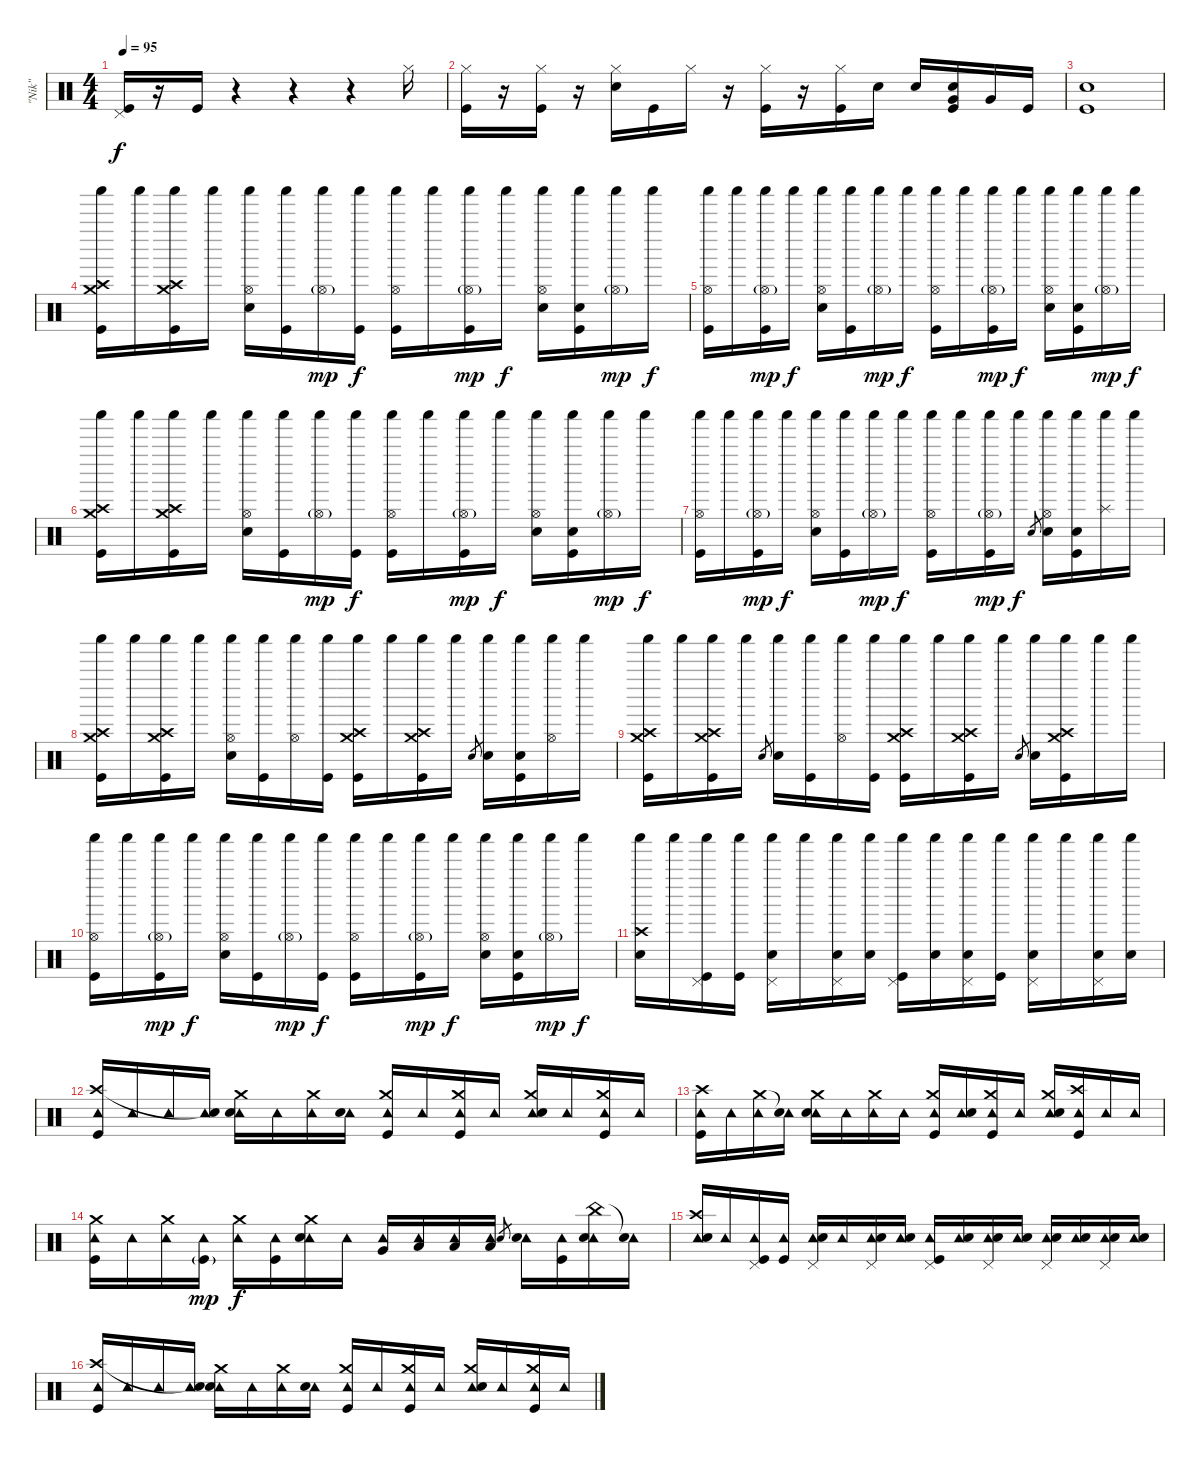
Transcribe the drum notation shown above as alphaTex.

\track ("\"Nik\"" "\"Nik\"") {instrument percussion}
\staff {score}
\articulation defaults
\ts (4 4)
\tempo 95
\clef neutral
\ks c
("Pedal Hi-Hat (hit)" "Kick (hit)").16{dy f} r.16 "Kick (hit)".16 r.4 r.4 r.4 "Hi-Hat (closed)".16 |
("Hi-Hat (closed)" "Kick (hit)").16 r.16 ("Hi-Hat (closed)" "Kick (hit)").16 r.16 ("Hi-Hat (closed)" "Snare (hit) 2").16 "Kick (hit)".16 "Hi-Hat (closed)".16 r.16 ("Hi-Hat (closed)" "Kick (hit)").16 r.16 ("Hi-Hat (closed)" "Kick (hit)").16 "Snare (hit) 2".16 "Snare (hit) 2".16 ("Snare (hit)"{x} "Very Low Tom (hit)" "Kick (hit)").16 "Very Low Tom (hit)".16 "Kick (hit)".16 |
("Snare (hit) 2" "Kick (hit)").1 |
("Shaker (hit)" "Crash medium (hit)" "Crash high (hit)" "Kick (hit)").16 "Shaker (hit)".16 ("Shaker (hit)" "Crash medium (hit)" "Crash high (hit)" "Kick (hit)").16 "Shaker (hit)".16 ("Shaker (hit)" "Hi-Hat (open)" "Snare (hit) 2").16 ("Shaker (hit)" "Kick (hit)").16 ("Shaker (hit)" "Hi-Hat (open)"{g}).16{dy mp} ("Shaker (hit)" "Kick (hit)").16{dy f} ("Shaker (hit)" "Hi-Hat (open)" "Kick (hit)").16 "Shaker (hit)".16 ("Shaker (hit)" "Hi-Hat (open)"{g} "Kick (hit)").16{dy mp} "Shaker (hit)".16{dy f} ("Shaker (hit)" "Hi-Hat (open)" "Snare (hit) 2").16 ("Shaker (hit)" "Snare (hit)"{x} "Kick (hit)").16 ("Shaker (hit)" "Hi-Hat (open)"{g}).16{dy mp} "Shaker (hit)".16{dy f} |
("Shaker (hit)" "Hi-Hat (open)" "Kick (hit)").16 "Shaker (hit)".16 ("Shaker (hit)" "Hi-Hat (open)"{g} "Kick (hit)").16{dy mp} "Shaker (hit)".16{dy f} ("Shaker (hit)" "Hi-Hat (open)" "Snare (hit) 2").16 ("Shaker (hit)" "Kick (hit)").16 ("Shaker (hit)" "Hi-Hat (open)"{g}).16{dy mp} "Shaker (hit)".16{dy f} ("Shaker (hit)" "Hi-Hat (open)" "Kick (hit)").16 "Shaker (hit)".16 ("Shaker (hit)" "Hi-Hat (open)"{g} "Kick (hit)").16{dy mp} "Shaker (hit)".16{dy f} ("Shaker (hit)" "Hi-Hat (open)" "Snare (hit) 2").16 ("Shaker (hit)" "Snare (hit)"{x} "Kick (hit)").16 ("Shaker (hit)" "Hi-Hat (open)"{g}).16{dy mp} "Shaker (hit)".16{dy f} |
("Shaker (hit)" "Crash medium (hit)" "Crash high (hit)" "Kick (hit)").16 "Shaker (hit)".16 ("Shaker (hit)" "Crash medium (hit)" "Crash high (hit)" "Kick (hit)").16 "Shaker (hit)".16 ("Shaker (hit)" "Hi-Hat (open)" "Snare (hit) 2").16 ("Shaker (hit)" "Kick (hit)").16 ("Shaker (hit)" "Hi-Hat (open)"{g}).16{dy mp} ("Shaker (hit)" "Kick (hit)").16{dy f} ("Shaker (hit)" "Hi-Hat (open)" "Kick (hit)").16 "Shaker (hit)".16 ("Shaker (hit)" "Hi-Hat (open)"{g} "Kick (hit)").16{dy mp} "Shaker (hit)".16{dy f} ("Shaker (hit)" "Hi-Hat (open)" "Snare (hit) 2").16 ("Shaker (hit)" "Snare (hit)"{x} "Kick (hit)").16 ("Shaker (hit)" "Hi-Hat (open)"{g}).16{dy mp} "Shaker (hit)".16{dy f} |
("Shaker (hit)" "Hi-Hat (open)" "Kick (hit)").16 "Shaker (hit)".16 ("Shaker (hit)" "Hi-Hat (open)"{g} "Kick (hit)").16{dy mp} "Shaker (hit)".16{dy f} ("Shaker (hit)" "Hi-Hat (open)" "Snare (hit) 2").16 ("Shaker (hit)" "Kick (hit)").16 ("Shaker (hit)" "Hi-Hat (open)"{g}).16{dy mp} "Shaker (hit)".16{dy f} ("Shaker (hit)" "Hi-Hat (open)" "Kick (hit)").16 "Shaker (hit)".16 ("Shaker (hit)" "Hi-Hat (open)"{g} "Kick (hit)").16{dy mp} "Shaker (hit)".16{dy f} "Snare (hit) 2".8{gr} ("Shaker (hit)" "Hi-Hat (open)" "Snare (hit) 2").16 ("Shaker (hit)" "Snare (hit)"{x} "Kick (hit)").16 ("Shaker (hit)" "Splash (hit)").16 "Shaker (hit)".16 |
("Shaker (hit)" "Crash medium (hit)" "Crash high (hit)" "Kick (hit)").16 "Shaker (hit)".16 ("Shaker (hit)" "Crash medium (hit)" "Crash high (hit)" "Kick (hit)").16 "Shaker (hit)".16 ("Shaker (hit)" "Hi-Hat (open)" "Snare (hit) 2").16 ("Shaker (hit)" "Kick (hit)").16 ("Shaker (hit)" "Hi-Hat (open)").16 ("Shaker (hit)" "Kick (hit)").16 ("Shaker (hit)" "Crash medium (hit)" "Crash high (hit)" "Kick (hit)").16 "Shaker (hit)".16 ("Shaker (hit)" "Crash medium (hit)" "Crash high (hit)" "Kick (hit)").16 "Shaker (hit)".16 "Snare (hit) 2".8{gr} ("Shaker (hit)" "Snare (hit) 2").16 ("Shaker (hit)" "Snare (hit)"{x} "Kick (hit)").16 ("Shaker (hit)" "Hi-Hat (open)").16 "Shaker (hit)".16 |
("Shaker (hit)" "Crash medium (hit)" "Crash high (hit)" "Kick (hit)").16 "Shaker (hit)".16 ("Shaker (hit)" "Crash medium (hit)" "Crash high (hit)" "Kick (hit)").16 "Shaker (hit)".16 "Snare (hit) 2".8{gr} ("Shaker (hit)" "Snare (hit) 2").16 ("Shaker (hit)" "Kick (hit)").16 ("Shaker (hit)" "Hi-Hat (open)").16 ("Shaker (hit)" "Kick (hit)").16 ("Shaker (hit)" "Crash medium (hit)" "Crash high (hit)" "Kick (hit)").16 "Shaker (hit)".16 ("Shaker (hit)" "Crash medium (hit)" "Crash high (hit)" "Kick (hit)").16 "Shaker (hit)".16 "Snare (hit) 2".8{gr} ("Shaker (hit)" "Snare (hit) 2").16 ("Shaker (hit)" "Crash medium (hit)" "Crash high (hit)" "Kick (hit)").16 "Shaker (hit)".16 "Shaker (hit)".16 |
("Shaker (hit)" "Hi-Hat (open)" "Kick (hit)").16 "Shaker (hit)".16 ("Shaker (hit)" "Hi-Hat (open)"{g} "Kick (hit)").16{dy mp} "Shaker (hit)".16{dy f} ("Shaker (hit)" "Hi-Hat (open)" "Snare (hit) 2").16 ("Shaker (hit)" "Kick (hit)").16 ("Shaker (hit)" "Hi-Hat (open)"{g}).16{dy mp} ("Shaker (hit)" "Kick (hit)").16{dy f} ("Shaker (hit)" "Hi-Hat (open)" "Kick (hit)").16 "Shaker (hit)".16 ("Shaker (hit)" "Hi-Hat (open)"{g} "Kick (hit)").16{dy mp} "Shaker (hit)".16{dy f} ("Shaker (hit)" "Hi-Hat (open)" "Snare (hit) 2").16 ("Shaker (hit)" "Snare (hit)"{x} "Kick (hit)").16 ("Shaker (hit)" "Hi-Hat (open)"{g}).16{dy mp} "Shaker (hit)".16{dy f} |
("Shaker (hit)" "Crash high (hit)" "Snare (hit) 2").16 "Shaker (hit)".16 ("Shaker (hit)" "Pedal Hi-Hat (hit)" "Kick (hit)").16 ("Shaker (hit)" "Kick (hit)").16 ("Shaker (hit)" "Pedal Hi-Hat (hit)" "Snare (hit) 2").16 "Shaker (hit)".16 ("Shaker (hit)" "Pedal Hi-Hat (hit)" "Snare (hit) 2").16 ("Shaker (hit)" "Snare (hit) 2").16 ("Shaker (hit)" "Pedal Hi-Hat (hit)" "Kick (hit)").16 ("Shaker (hit)" "Snare (hit) 2").16 ("Shaker (hit)" "Pedal Hi-Hat (hit)" "Snare (hit) 2").16 ("Shaker (hit)" "Kick (hit)").16 ("Shaker (hit)" "Pedal Hi-Hat (hit)" "Snare (hit) 2").16 "Shaker (hit)".16 ("Shaker (hit)" "Pedal Hi-Hat (hit)" "Snare (hit) 2").16 ("Shaker (hit)" "Snare (hit) 2").16 |
("Tambourine (hit)" "Crash high (hit)" "Kick (hit)").16 "Tambourine (hit)".16 "Tambourine (hit)".16 ("Tambourine (hit)" "Snare (hit)"{t}).16 ("Tambourine (hit)" "Crash medium (hit)" "Snare (hit) 2").16 "Tambourine (hit)".16 ("Tambourine (hit)" "Crash medium (hit)").16 ("Tambourine (hit)" "Snare (hit) 2").16 ("Tambourine (hit)" "Crash medium (hit)" "Kick (hit)").16 "Tambourine (hit)".16 ("Tambourine (hit)" "Crash medium (hit)" "Kick (hit)").16 "Tambourine (hit)".16 ("Tambourine (hit)" "Crash medium (hit)" "Snare (hit) 2").16 "Tambourine (hit)".16 ("Tambourine (hit)" "Crash medium (hit)" "Kick (hit)").16 "Tambourine (hit)".16 |
("Tambourine (hit)" "Crash high (hit)" "Kick (hit)").16 "Tambourine (hit)".16 ("Tambourine (hit)" "Crash medium (hit)").16 ("Tambourine (hit)" "Snare (hit)"{t}).16 ("Tambourine (hit)" "Crash medium (hit)" "Snare (hit) 2").16 "Tambourine (hit)".16 ("Tambourine (hit)" "Crash medium (hit)").16 "Tambourine (hit)".16 ("Tambourine (hit)" "Crash medium (hit)" "Kick (hit)").16 ("Tambourine (hit)" "Snare (hit) 2").16 ("Tambourine (hit)" "Crash medium (hit)" "Kick (hit)").16 "Tambourine (hit)".16 ("Tambourine (hit)" "Crash medium (hit)" "Snare (hit) 2").16 ("Tambourine (hit)" "Crash high (hit)" "Kick (hit)").16 "Tambourine (hit)".16 "Tambourine (hit)".16 |
("Tambourine (hit)" "Crash medium (hit)" "Kick (hit)").16 "Tambourine (hit)".16 ("Tambourine (hit)" "Crash medium (hit)").16 ("Tambourine (hit)" "Kick (hit)"{g}).16{dy mp} ("Tambourine (hit)" "Crash medium (hit)").16{dy f} ("Tambourine (hit)" "Kick (hit)").16 ("Tambourine (hit)" "Crash medium (hit)" "Snare (hit) 2").16 "Tambourine (hit)".16 ("Tambourine (hit)" "Very Low Tom (hit)").16 ("Tambourine (hit)" "Low Tom (hit)").16 ("Tambourine (hit)" "Low Tom (hit)").16 ("Tambourine (hit)" "Low Floor Tom (hit)").16 "Snare (hit) 2".8{gr} ("Tambourine (hit)" "Snare (hit) 2").16 ("Tambourine (hit)" "Kick (hit)").16 ("Tambourine (hit)" "China (hit)" "Snare (hit) 2").16 ("Tambourine (hit)" "Snare (hit)"{t}).16 |
("Tambourine (hit)" "Crash high (hit)" "Snare (hit) 2").16 "Tambourine (hit)".16 ("Tambourine (hit)" "Pedal Hi-Hat (hit)" "Kick (hit)").16 ("Tambourine (hit)" "Kick (hit)").16 ("Tambourine (hit)" "Pedal Hi-Hat (hit)" "Snare (hit) 2").16 "Tambourine (hit)".16 ("Tambourine (hit)" "Pedal Hi-Hat (hit)" "Snare (hit) 2").16 ("Tambourine (hit)" "Snare (hit) 2").16 ("Tambourine (hit)" "Pedal Hi-Hat (hit)" "Kick (hit)").16 ("Tambourine (hit)" "Snare (hit) 2").16 ("Tambourine (hit)" "Pedal Hi-Hat (hit)" "Snare (hit) 2").16 ("Tambourine (hit)" "Snare (hit) 2").16 ("Tambourine (hit)" "Pedal Hi-Hat (hit)" "Snare (hit) 2").16 ("Tambourine (hit)" "Snare (hit) 2").16 ("Tambourine (hit)" "Pedal Hi-Hat (hit)" "Snare (hit) 2").16 ("Tambourine (hit)" "Snare (hit) 2").16 |
("Tambourine (hit)" "Crash high (hit)" "Kick (hit)").16 "Tambourine (hit)".16 "Tambourine (hit)".16 ("Tambourine (hit)" "Snare (hit)"{t}).16 ("Tambourine (hit)" "Crash medium (hit)" "Snare (hit) 2").16 "Tambourine (hit)".16 ("Tambourine (hit)" "Crash medium (hit)").16 ("Tambourine (hit)" "Snare (hit) 2").16 ("Tambourine (hit)" "Crash medium (hit)" "Kick (hit)").16 "Tambourine (hit)".16 ("Tambourine (hit)" "Crash medium (hit)" "Kick (hit)").16 "Tambourine (hit)".16 ("Tambourine (hit)" "Crash medium (hit)" "Snare (hit) 2").16 "Tambourine (hit)".16 ("Tambourine (hit)" "Crash medium (hit)" "Kick (hit)").16 "Tambourine (hit)".16
